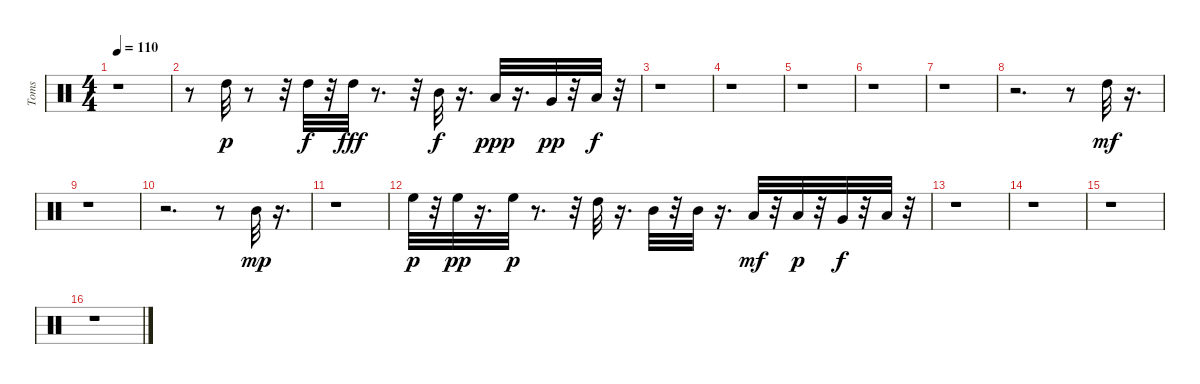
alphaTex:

\track ("Toms" "Toms") {instrument percussion}
\staff {score}
\articulation defaults
\ts (4 4)
\tempo 110
\clef neutral
\ks c
r.1{dy mf} |
r.8 "High Tom (hit)".32{dy p} r.8 r.32 "High Tom (hit)".32{dy f} r.32 "High Tom (hit)".32{dy fff} r.8{d} r.32 "Mid Tom (hit)".32{dy f} r.16{d} "Low Tom (hit)".32{dy ppp} r.16{d} "Very Low Tom (hit)".32{dy pp} r.32 "Low Floor Tom (hit)".32{dy f} r.32 |
r.1 |
r.1 |
r.1 |
r.1 |
r.1 |
r.2{d} r.8 "High Tom (hit)".32{dy mf} r.16{d} |
r.1 |
r.2{d} r.8 "Mid Tom (hit)".32{dy mp} r.16{d} |
r.1 |
"High Floor Tom (hit)".32{dy p} r.32 "High Floor Tom (hit)".32{dy pp} r.16{d} "High Floor Tom (hit)".32{dy p} r.8{d} r.32 "High Tom (hit)".32 r.16{d} "Mid Tom (hit)".32 r.32 "Mid Tom (hit)".32 r.16{d} "Low Tom (hit)".32{dy mf} r.32 "Low Tom (hit)".32{dy p} r.32 "Very Low Tom (hit)".32{dy f} r.32 "Low Floor Tom (hit)".32 r.32 |
r.1 |
r.1 |
r.1 |
r.1
